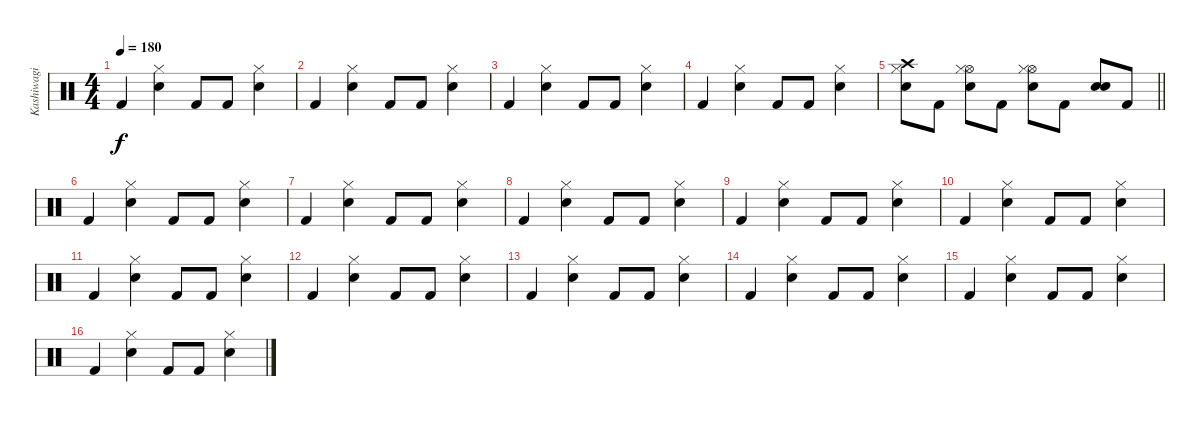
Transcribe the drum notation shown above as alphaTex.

\track ("Kashiwagi Yuki" "Kashiwagi ") {instrument percussion}
\staff {score}
\articulation defaults
\ts (4 4)
\tempo 180
\clef neutral
\ks c "Kick (hit) 2".4{dy f}
("Hi-Hat (closed)" "Electric Snare (hit)").4 "Kick (hit) 2".8 "Kick (hit) 2".8 ("Hi-Hat (closed)" "Electric Snare (hit)").4 |
"Kick (hit) 2".4 ("Hi-Hat (closed)" "Electric Snare (hit)").4 "Kick (hit) 2".8 "Kick (hit) 2".8 ("Hi-Hat (closed)" "Electric Snare (hit)").4 |
"Kick (hit) 2".4 ("Hi-Hat (closed)" "Electric Snare (hit)").4 "Kick (hit) 2".8 "Kick (hit) 2".8 ("Hi-Hat (closed)" "Electric Snare (hit)").4 |
"Kick (hit) 2".4 ("Hi-Hat (closed)" "Electric Snare (hit)").4 "Kick (hit) 2".8 "Kick (hit) 2".8 ("Hi-Hat (closed)" "Electric Snare (hit)").4 |
\barLineRight lightlight
("Crash high (hit)" "Hi-Hat (closed)" "Electric Snare (hit)").8 "Kick (hit) 2".8 ("Hi-Hat (open)" "Hi-Hat (closed)" "Electric Snare (hit)").8 "Kick (hit) 2".8 ("Hi-Hat (open)" "Hi-Hat (closed)" "Electric Snare (hit)").8 "Kick (hit) 2".8 ("Electric Snare (hit)" "Electric Snare (hit)").8 "Kick (hit) 2".8 |
"Kick (hit) 2".4 ("Hi-Hat (closed)" "Electric Snare (hit)").4 "Kick (hit) 2".8 "Kick (hit) 2".8 ("Hi-Hat (closed)" "Electric Snare (hit)").4 |
"Kick (hit) 2".4 ("Hi-Hat (closed)" "Electric Snare (hit)").4 "Kick (hit) 2".8 "Kick (hit) 2".8 ("Hi-Hat (closed)" "Electric Snare (hit)").4 |
"Kick (hit) 2".4 ("Hi-Hat (closed)" "Electric Snare (hit)").4 "Kick (hit) 2".8 "Kick (hit) 2".8 ("Hi-Hat (closed)" "Electric Snare (hit)").4 |
"Kick (hit) 2".4 ("Hi-Hat (closed)" "Electric Snare (hit)").4 "Kick (hit) 2".8 "Kick (hit) 2".8 ("Hi-Hat (closed)" "Electric Snare (hit)").4 |
"Kick (hit) 2".4 ("Hi-Hat (closed)" "Electric Snare (hit)").4 "Kick (hit) 2".8 "Kick (hit) 2".8 ("Hi-Hat (closed)" "Electric Snare (hit)").4 |
"Kick (hit) 2".4 ("Hi-Hat (closed)" "Electric Snare (hit)").4 "Kick (hit) 2".8 "Kick (hit) 2".8 ("Hi-Hat (closed)" "Electric Snare (hit)").4 |
"Kick (hit) 2".4 ("Hi-Hat (closed)" "Electric Snare (hit)").4 "Kick (hit) 2".8 "Kick (hit) 2".8 ("Hi-Hat (closed)" "Electric Snare (hit)").4 |
"Kick (hit) 2".4 ("Hi-Hat (closed)" "Electric Snare (hit)").4 "Kick (hit) 2".8 "Kick (hit) 2".8 ("Hi-Hat (closed)" "Electric Snare (hit)").4 |
"Kick (hit) 2".4 ("Hi-Hat (closed)" "Electric Snare (hit)").4 "Kick (hit) 2".8 "Kick (hit) 2".8 ("Hi-Hat (closed)" "Electric Snare (hit)").4 |
"Kick (hit) 2".4 ("Hi-Hat (closed)" "Electric Snare (hit)").4 "Kick (hit) 2".8 "Kick (hit) 2".8 ("Hi-Hat (closed)" "Electric Snare (hit)").4 |
"Kick (hit) 2".4 ("Hi-Hat (closed)" "Electric Snare (hit)").4 "Kick (hit) 2".8 "Kick (hit) 2".8 ("Hi-Hat (closed)" "Electric Snare (hit)").4
